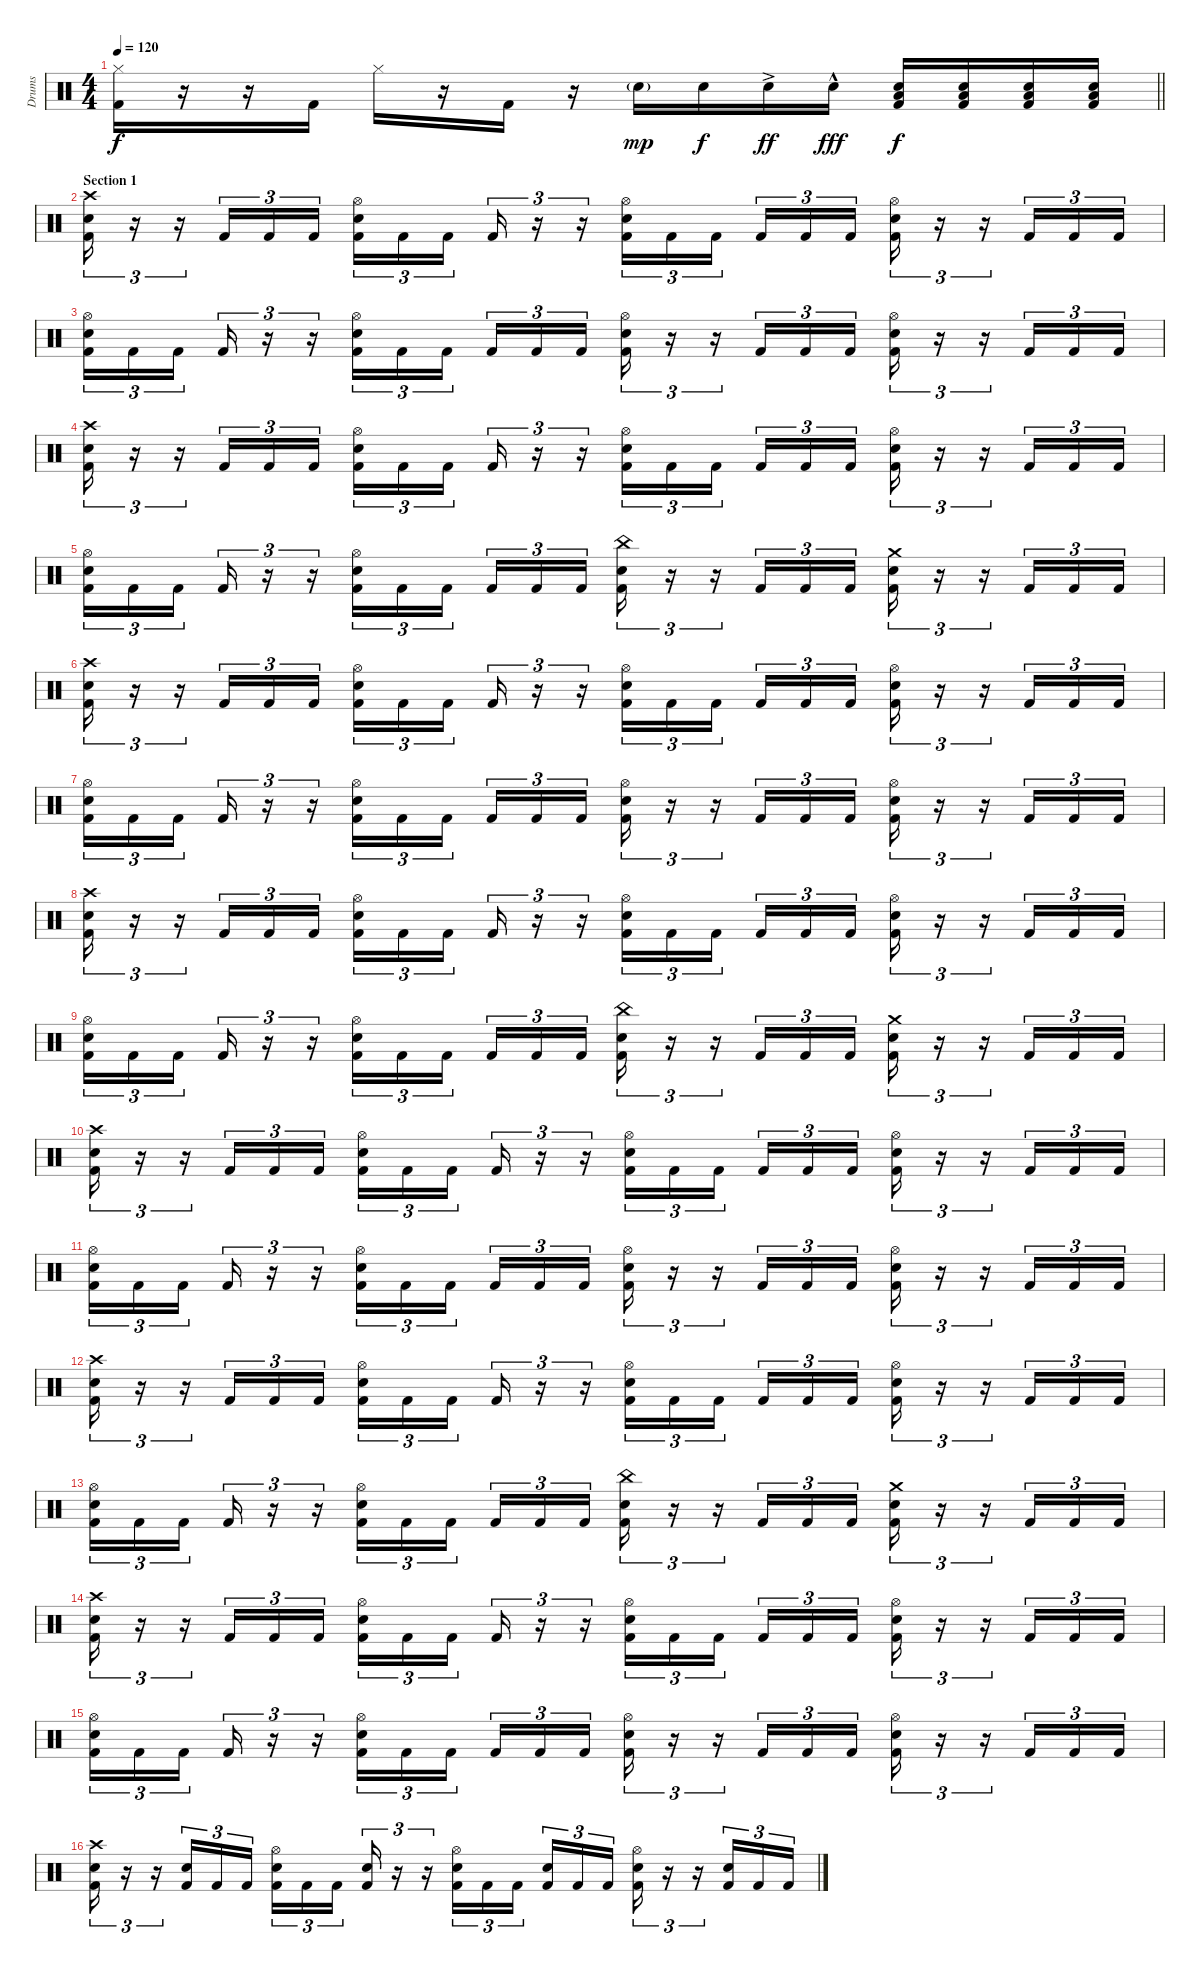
\track ("Drums" "Drums") {instrument percussion}
\staff {score}
\articulation defaults
\ts (4 4)
\tempo 120
\clef neutral
\barLineRight lightlight
\ks c
("Hi-Hat (closed)" "Kick (hit) 2").16{dy f} r.16 r.16 "Kick (hit) 2".16 "Hi-Hat (closed)".16 r.16 "Kick (hit) 2".16 r.16 "Snare (hit) 2"{g}.16{dy mp} "Snare (hit) 2".16{dy f} "Snare (hit) 2"{ac}.16{dy ff} "Snare (hit) 2"{hac}.16{dy fff} ("Snare (hit) 2" "Low Tom (hit)" "Kick (hit) 2").16{dy f} ("Snare (hit) 2" "Low Tom (hit)" "Kick (hit) 2").16 ("Snare (hit) 2" "Low Tom (hit)" "Kick (hit) 2").16 ("Snare (hit) 2" "Low Tom (hit)" "Kick (hit) 2").16 |
\section ("" "Section 1")
("Crash high (hit)" "Snare (hit) 2" "Kick (hit) 2").16{tu (3 2)} r.16{tu (3 2)} r.16{tu (3 2)} "Kick (hit) 2".16{tu (3 2)} "Kick (hit) 2".16{tu (3 2)} "Kick (hit) 2".16{tu (3 2)} ("Hi-Hat (open)" "Snare (hit) 2" "Kick (hit) 2").16{tu (3 2)} "Kick (hit) 2".16{tu (3 2)} "Kick (hit) 2".16{tu (3 2) beam splitsecondary} "Kick (hit) 2".16{tu (3 2)} r.16{tu (3 2)} r.16{tu (3 2)} ("Hi-Hat (open)" "Snare (hit) 2" "Kick (hit) 2").16{tu (3 2)} "Kick (hit) 2".16{tu (3 2)} "Kick (hit) 2".16{tu (3 2) beam splitsecondary} "Kick (hit) 2".16{tu (3 2)} "Kick (hit) 2".16{tu (3 2)} "Kick (hit) 2".16{tu (3 2)} ("Hi-Hat (open)" "Snare (hit) 2" "Kick (hit) 2").16{tu (3 2)} r.16{tu (3 2)} r.16{tu (3 2)} "Kick (hit) 2".16{tu (3 2)} "Kick (hit) 2".16{tu (3 2)} "Kick (hit) 2".16{tu (3 2)} |
("Hi-Hat (open)" "Snare (hit) 2" "Kick (hit) 2").16{tu (3 2)} "Kick (hit) 2".16{tu (3 2)} "Kick (hit) 2".16{tu (3 2) beam splitsecondary} "Kick (hit) 2".16{tu (3 2)} r.16{tu (3 2)} r.16{tu (3 2)} ("Hi-Hat (open)" "Snare (hit) 2" "Kick (hit) 2").16{tu (3 2)} "Kick (hit) 2".16{tu (3 2)} "Kick (hit) 2".16{tu (3 2) beam splitsecondary} "Kick (hit) 2".16{tu (3 2)} "Kick (hit) 2".16{tu (3 2)} "Kick (hit) 2".16{tu (3 2)} ("Hi-Hat (open)" "Snare (hit) 2" "Kick (hit) 2").16{tu (3 2)} r.16{tu (3 2)} r.16{tu (3 2)} "Kick (hit) 2".16{tu (3 2)} "Kick (hit) 2".16{tu (3 2)} "Kick (hit) 2".16{tu (3 2)} ("Hi-Hat (open)" "Snare (hit) 2" "Kick (hit) 2").16{tu (3 2)} r.16{tu (3 2)} r.16{tu (3 2)} "Kick (hit) 2".16{tu (3 2)} "Kick (hit) 2".16{tu (3 2)} "Kick (hit) 2".16{tu (3 2)} |
("Crash high (hit)" "Snare (hit) 2" "Kick (hit) 2").16{tu (3 2)} r.16{tu (3 2)} r.16{tu (3 2)} "Kick (hit) 2".16{tu (3 2)} "Kick (hit) 2".16{tu (3 2)} "Kick (hit) 2".16{tu (3 2)} ("Hi-Hat (open)" "Snare (hit) 2" "Kick (hit) 2").16{tu (3 2)} "Kick (hit) 2".16{tu (3 2)} "Kick (hit) 2".16{tu (3 2) beam splitsecondary} "Kick (hit) 2".16{tu (3 2)} r.16{tu (3 2)} r.16{tu (3 2)} ("Hi-Hat (open)" "Snare (hit) 2" "Kick (hit) 2").16{tu (3 2)} "Kick (hit) 2".16{tu (3 2)} "Kick (hit) 2".16{tu (3 2) beam splitsecondary} "Kick (hit) 2".16{tu (3 2)} "Kick (hit) 2".16{tu (3 2)} "Kick (hit) 2".16{tu (3 2)} ("Hi-Hat (open)" "Snare (hit) 2" "Kick (hit) 2").16{tu (3 2)} r.16{tu (3 2)} r.16{tu (3 2)} "Kick (hit) 2".16{tu (3 2)} "Kick (hit) 2".16{tu (3 2)} "Kick (hit) 2".16{tu (3 2)} |
("Hi-Hat (open)" "Snare (hit) 2" "Kick (hit) 2").16{tu (3 2)} "Kick (hit) 2".16{tu (3 2)} "Kick (hit) 2".16{tu (3 2) beam splitsecondary} "Kick (hit) 2".16{tu (3 2)} r.16{tu (3 2)} r.16{tu (3 2)} ("Hi-Hat (open)" "Snare (hit) 2" "Kick (hit) 2").16{tu (3 2)} "Kick (hit) 2".16{tu (3 2)} "Kick (hit) 2".16{tu (3 2) beam splitsecondary} "Kick (hit) 2".16{tu (3 2)} "Kick (hit) 2".16{tu (3 2)} "Kick (hit) 2".16{tu (3 2)} ("China (hit)" "Snare (hit) 2" "Kick (hit) 2").16{tu (3 2)} r.16{tu (3 2)} r.16{tu (3 2)} "Kick (hit) 2".16{tu (3 2)} "Kick (hit) 2".16{tu (3 2)} "Kick (hit) 2".16{tu (3 2)} ("Crash medium (hit)" "Snare (hit) 2" "Kick (hit) 2").16{tu (3 2)} r.16{tu (3 2)} r.16{tu (3 2)} "Kick (hit) 2".16{tu (3 2)} "Kick (hit) 2".16{tu (3 2)} "Kick (hit) 2".16{tu (3 2)} |
("Crash high (hit)" "Snare (hit) 2" "Kick (hit) 2").16{tu (3 2)} r.16{tu (3 2)} r.16{tu (3 2)} "Kick (hit) 2".16{tu (3 2)} "Kick (hit) 2".16{tu (3 2)} "Kick (hit) 2".16{tu (3 2)} ("Hi-Hat (open)" "Snare (hit) 2" "Kick (hit) 2").16{tu (3 2)} "Kick (hit) 2".16{tu (3 2)} "Kick (hit) 2".16{tu (3 2) beam splitsecondary} "Kick (hit) 2".16{tu (3 2)} r.16{tu (3 2)} r.16{tu (3 2)} ("Hi-Hat (open)" "Snare (hit) 2" "Kick (hit) 2").16{tu (3 2)} "Kick (hit) 2".16{tu (3 2)} "Kick (hit) 2".16{tu (3 2) beam splitsecondary} "Kick (hit) 2".16{tu (3 2)} "Kick (hit) 2".16{tu (3 2)} "Kick (hit) 2".16{tu (3 2)} ("Hi-Hat (open)" "Snare (hit) 2" "Kick (hit) 2").16{tu (3 2)} r.16{tu (3 2)} r.16{tu (3 2)} "Kick (hit) 2".16{tu (3 2)} "Kick (hit) 2".16{tu (3 2)} "Kick (hit) 2".16{tu (3 2)} |
("Hi-Hat (open)" "Snare (hit) 2" "Kick (hit) 2").16{tu (3 2)} "Kick (hit) 2".16{tu (3 2)} "Kick (hit) 2".16{tu (3 2) beam splitsecondary} "Kick (hit) 2".16{tu (3 2)} r.16{tu (3 2)} r.16{tu (3 2)} ("Hi-Hat (open)" "Snare (hit) 2" "Kick (hit) 2").16{tu (3 2)} "Kick (hit) 2".16{tu (3 2)} "Kick (hit) 2".16{tu (3 2) beam splitsecondary} "Kick (hit) 2".16{tu (3 2)} "Kick (hit) 2".16{tu (3 2)} "Kick (hit) 2".16{tu (3 2)} ("Hi-Hat (open)" "Snare (hit) 2" "Kick (hit) 2").16{tu (3 2)} r.16{tu (3 2)} r.16{tu (3 2)} "Kick (hit) 2".16{tu (3 2)} "Kick (hit) 2".16{tu (3 2)} "Kick (hit) 2".16{tu (3 2)} ("Hi-Hat (open)" "Snare (hit) 2" "Kick (hit) 2").16{tu (3 2)} r.16{tu (3 2)} r.16{tu (3 2)} "Kick (hit) 2".16{tu (3 2)} "Kick (hit) 2".16{tu (3 2)} "Kick (hit) 2".16{tu (3 2)} |
("Crash high (hit)" "Snare (hit) 2" "Kick (hit) 2").16{tu (3 2)} r.16{tu (3 2)} r.16{tu (3 2)} "Kick (hit) 2".16{tu (3 2)} "Kick (hit) 2".16{tu (3 2)} "Kick (hit) 2".16{tu (3 2)} ("Hi-Hat (open)" "Snare (hit) 2" "Kick (hit) 2").16{tu (3 2)} "Kick (hit) 2".16{tu (3 2)} "Kick (hit) 2".16{tu (3 2) beam splitsecondary} "Kick (hit) 2".16{tu (3 2)} r.16{tu (3 2)} r.16{tu (3 2)} ("Hi-Hat (open)" "Snare (hit) 2" "Kick (hit) 2").16{tu (3 2)} "Kick (hit) 2".16{tu (3 2)} "Kick (hit) 2".16{tu (3 2) beam splitsecondary} "Kick (hit) 2".16{tu (3 2)} "Kick (hit) 2".16{tu (3 2)} "Kick (hit) 2".16{tu (3 2)} ("Hi-Hat (open)" "Snare (hit) 2" "Kick (hit) 2").16{tu (3 2)} r.16{tu (3 2)} r.16{tu (3 2)} "Kick (hit) 2".16{tu (3 2)} "Kick (hit) 2".16{tu (3 2)} "Kick (hit) 2".16{tu (3 2)} |
("Hi-Hat (open)" "Snare (hit) 2" "Kick (hit) 2").16{tu (3 2)} "Kick (hit) 2".16{tu (3 2)} "Kick (hit) 2".16{tu (3 2) beam splitsecondary} "Kick (hit) 2".16{tu (3 2)} r.16{tu (3 2)} r.16{tu (3 2)} ("Hi-Hat (open)" "Snare (hit) 2" "Kick (hit) 2").16{tu (3 2)} "Kick (hit) 2".16{tu (3 2)} "Kick (hit) 2".16{tu (3 2) beam splitsecondary} "Kick (hit) 2".16{tu (3 2)} "Kick (hit) 2".16{tu (3 2)} "Kick (hit) 2".16{tu (3 2)} ("China (hit)" "Snare (hit) 2" "Kick (hit) 2").16{tu (3 2)} r.16{tu (3 2)} r.16{tu (3 2)} "Kick (hit) 2".16{tu (3 2)} "Kick (hit) 2".16{tu (3 2)} "Kick (hit) 2".16{tu (3 2)} ("Crash medium (hit)" "Snare (hit) 2" "Kick (hit) 2").16{tu (3 2)} r.16{tu (3 2)} r.16{tu (3 2)} "Kick (hit) 2".16{tu (3 2)} "Kick (hit) 2".16{tu (3 2)} "Kick (hit) 2".16{tu (3 2)} |
("Crash high (hit)" "Snare (hit) 2" "Kick (hit) 2").16{tu (3 2)} r.16{tu (3 2)} r.16{tu (3 2)} "Kick (hit) 2".16{tu (3 2)} "Kick (hit) 2".16{tu (3 2)} "Kick (hit) 2".16{tu (3 2)} ("Hi-Hat (open)" "Snare (hit) 2" "Kick (hit) 2").16{tu (3 2)} "Kick (hit) 2".16{tu (3 2)} "Kick (hit) 2".16{tu (3 2) beam splitsecondary} "Kick (hit) 2".16{tu (3 2)} r.16{tu (3 2)} r.16{tu (3 2)} ("Hi-Hat (open)" "Snare (hit) 2" "Kick (hit) 2").16{tu (3 2)} "Kick (hit) 2".16{tu (3 2)} "Kick (hit) 2".16{tu (3 2) beam splitsecondary} "Kick (hit) 2".16{tu (3 2)} "Kick (hit) 2".16{tu (3 2)} "Kick (hit) 2".16{tu (3 2)} ("Hi-Hat (open)" "Snare (hit) 2" "Kick (hit) 2").16{tu (3 2)} r.16{tu (3 2)} r.16{tu (3 2)} "Kick (hit) 2".16{tu (3 2)} "Kick (hit) 2".16{tu (3 2)} "Kick (hit) 2".16{tu (3 2)} |
("Hi-Hat (open)" "Snare (hit) 2" "Kick (hit) 2").16{tu (3 2)} "Kick (hit) 2".16{tu (3 2)} "Kick (hit) 2".16{tu (3 2) beam splitsecondary} "Kick (hit) 2".16{tu (3 2)} r.16{tu (3 2)} r.16{tu (3 2)} ("Hi-Hat (open)" "Snare (hit) 2" "Kick (hit) 2").16{tu (3 2)} "Kick (hit) 2".16{tu (3 2)} "Kick (hit) 2".16{tu (3 2) beam splitsecondary} "Kick (hit) 2".16{tu (3 2)} "Kick (hit) 2".16{tu (3 2)} "Kick (hit) 2".16{tu (3 2)} ("Hi-Hat (open)" "Snare (hit) 2" "Kick (hit) 2").16{tu (3 2)} r.16{tu (3 2)} r.16{tu (3 2)} "Kick (hit) 2".16{tu (3 2)} "Kick (hit) 2".16{tu (3 2)} "Kick (hit) 2".16{tu (3 2)} ("Hi-Hat (open)" "Snare (hit) 2" "Kick (hit) 2").16{tu (3 2)} r.16{tu (3 2)} r.16{tu (3 2)} "Kick (hit) 2".16{tu (3 2)} "Kick (hit) 2".16{tu (3 2)} "Kick (hit) 2".16{tu (3 2)} |
("Crash high (hit)" "Snare (hit) 2" "Kick (hit) 2").16{tu (3 2)} r.16{tu (3 2)} r.16{tu (3 2)} "Kick (hit) 2".16{tu (3 2)} "Kick (hit) 2".16{tu (3 2)} "Kick (hit) 2".16{tu (3 2)} ("Hi-Hat (open)" "Snare (hit) 2" "Kick (hit) 2").16{tu (3 2)} "Kick (hit) 2".16{tu (3 2)} "Kick (hit) 2".16{tu (3 2) beam splitsecondary} "Kick (hit) 2".16{tu (3 2)} r.16{tu (3 2)} r.16{tu (3 2)} ("Hi-Hat (open)" "Snare (hit) 2" "Kick (hit) 2").16{tu (3 2)} "Kick (hit) 2".16{tu (3 2)} "Kick (hit) 2".16{tu (3 2) beam splitsecondary} "Kick (hit) 2".16{tu (3 2)} "Kick (hit) 2".16{tu (3 2)} "Kick (hit) 2".16{tu (3 2)} ("Hi-Hat (open)" "Snare (hit) 2" "Kick (hit) 2").16{tu (3 2)} r.16{tu (3 2)} r.16{tu (3 2)} "Kick (hit) 2".16{tu (3 2)} "Kick (hit) 2".16{tu (3 2)} "Kick (hit) 2".16{tu (3 2)} |
("Hi-Hat (open)" "Snare (hit) 2" "Kick (hit) 2").16{tu (3 2)} "Kick (hit) 2".16{tu (3 2)} "Kick (hit) 2".16{tu (3 2) beam splitsecondary} "Kick (hit) 2".16{tu (3 2)} r.16{tu (3 2)} r.16{tu (3 2)} ("Hi-Hat (open)" "Snare (hit) 2" "Kick (hit) 2").16{tu (3 2)} "Kick (hit) 2".16{tu (3 2)} "Kick (hit) 2".16{tu (3 2) beam splitsecondary} "Kick (hit) 2".16{tu (3 2)} "Kick (hit) 2".16{tu (3 2)} "Kick (hit) 2".16{tu (3 2)} ("China (hit)" "Snare (hit) 2" "Kick (hit) 2").16{tu (3 2)} r.16{tu (3 2)} r.16{tu (3 2)} "Kick (hit) 2".16{tu (3 2)} "Kick (hit) 2".16{tu (3 2)} "Kick (hit) 2".16{tu (3 2)} ("Crash medium (hit)" "Snare (hit) 2" "Kick (hit) 2").16{tu (3 2)} r.16{tu (3 2)} r.16{tu (3 2)} "Kick (hit) 2".16{tu (3 2)} "Kick (hit) 2".16{tu (3 2)} "Kick (hit) 2".16{tu (3 2)} |
("Crash high (hit)" "Snare (hit) 2" "Kick (hit) 2").16{tu (3 2)} r.16{tu (3 2)} r.16{tu (3 2)} "Kick (hit) 2".16{tu (3 2)} "Kick (hit) 2".16{tu (3 2)} "Kick (hit) 2".16{tu (3 2)} ("Hi-Hat (open)" "Snare (hit) 2" "Kick (hit) 2").16{tu (3 2)} "Kick (hit) 2".16{tu (3 2)} "Kick (hit) 2".16{tu (3 2) beam splitsecondary} "Kick (hit) 2".16{tu (3 2)} r.16{tu (3 2)} r.16{tu (3 2)} ("Hi-Hat (open)" "Snare (hit) 2" "Kick (hit) 2").16{tu (3 2)} "Kick (hit) 2".16{tu (3 2)} "Kick (hit) 2".16{tu (3 2) beam splitsecondary} "Kick (hit) 2".16{tu (3 2)} "Kick (hit) 2".16{tu (3 2)} "Kick (hit) 2".16{tu (3 2)} ("Hi-Hat (open)" "Snare (hit) 2" "Kick (hit) 2").16{tu (3 2)} r.16{tu (3 2)} r.16{tu (3 2)} "Kick (hit) 2".16{tu (3 2)} "Kick (hit) 2".16{tu (3 2)} "Kick (hit) 2".16{tu (3 2)} |
("Hi-Hat (open)" "Snare (hit) 2" "Kick (hit) 2").16{tu (3 2)} "Kick (hit) 2".16{tu (3 2)} "Kick (hit) 2".16{tu (3 2) beam splitsecondary} "Kick (hit) 2".16{tu (3 2)} r.16{tu (3 2)} r.16{tu (3 2)} ("Hi-Hat (open)" "Snare (hit) 2" "Kick (hit) 2").16{tu (3 2)} "Kick (hit) 2".16{tu (3 2)} "Kick (hit) 2".16{tu (3 2) beam splitsecondary} "Kick (hit) 2".16{tu (3 2)} "Kick (hit) 2".16{tu (3 2)} "Kick (hit) 2".16{tu (3 2)} ("Hi-Hat (open)" "Snare (hit) 2" "Kick (hit) 2").16{tu (3 2)} r.16{tu (3 2)} r.16{tu (3 2)} "Kick (hit) 2".16{tu (3 2)} "Kick (hit) 2".16{tu (3 2)} "Kick (hit) 2".16{tu (3 2)} ("Hi-Hat (open)" "Snare (hit) 2" "Kick (hit) 2").16{tu (3 2)} r.16{tu (3 2)} r.16{tu (3 2)} "Kick (hit) 2".16{tu (3 2)} "Kick (hit) 2".16{tu (3 2)} "Kick (hit) 2".16{tu (3 2)} |
("Crash high (hit)" "Snare (hit) 2" "Kick (hit) 2").16{tu (3 2)} r.16{tu (3 2)} r.16{tu (3 2)} ("Snare (hit) 2" "Kick (hit) 2").16{tu (3 2)} "Kick (hit) 2".16{tu (3 2)} "Kick (hit) 2".16{tu (3 2)} ("Hi-Hat (open)" "Snare (hit) 2" "Kick (hit) 2").16{tu (3 2)} "Kick (hit) 2".16{tu (3 2)} "Kick (hit) 2".16{tu (3 2) beam splitsecondary} ("Snare (hit) 2" "Kick (hit) 2").16{tu (3 2)} r.16{tu (3 2)} r.16{tu (3 2)} ("Hi-Hat (open)" "Snare (hit) 2" "Kick (hit) 2").16{tu (3 2)} "Kick (hit) 2".16{tu (3 2)} "Kick (hit) 2".16{tu (3 2) beam splitsecondary} ("Snare (hit) 2" "Kick (hit) 2").16{tu (3 2)} "Kick (hit) 2".16{tu (3 2)} "Kick (hit) 2".16{tu (3 2)} ("Hi-Hat (open)" "Snare (hit) 2" "Kick (hit) 2").16{tu (3 2)} r.16{tu (3 2)} r.16{tu (3 2)} ("Snare (hit) 2" "Kick (hit) 2").16{tu (3 2)} "Kick (hit) 2".16{tu (3 2)} "Kick (hit) 2".16{tu (3 2)}
